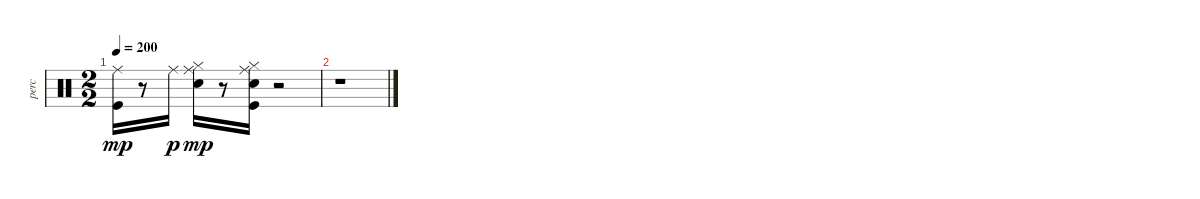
\track ("perc" "perc") {instrument percussion}
\staff {score}
\articulation defaults
\ts (2 2)
\tempo 200
\clef neutral
\ks c
("Kick (hit)" "Ride (middle)").16{dy mp} r.8 "Ride (middle)".16{dy p} ("Snare (hit) 2" "Hi-Hat (closed)" "Ride (middle)").16{dy mp} r.8 ("Kick (hit)" "Snare (hit) 2" "Hi-Hat (closed)" "Ride (middle)").16 r.2 |
r.1
